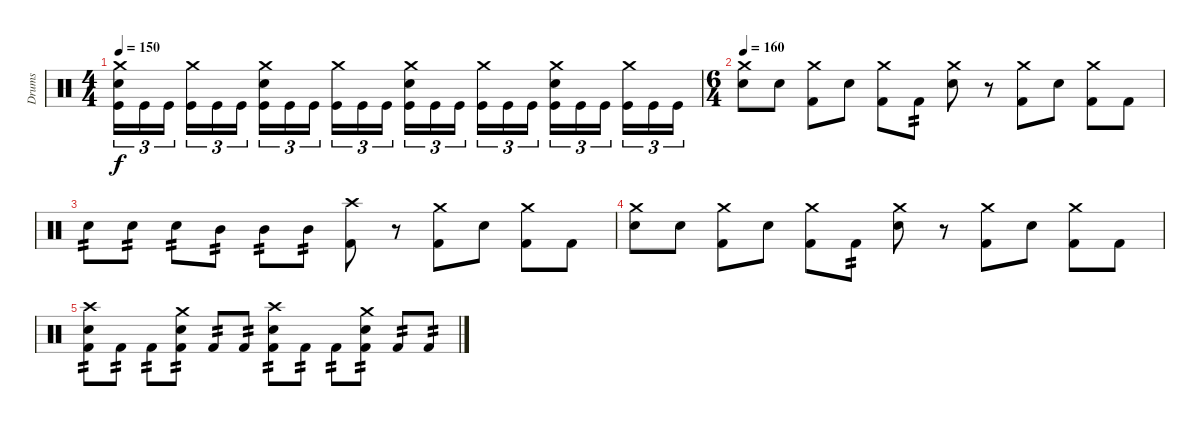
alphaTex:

\track ("Drums" "Drums") {instrument percussion}
\staff {score}
\articulation defaults
\ts (4 4)
\tempo 150
\clef neutral
\ks c
("Crash medium (hit)" "Electric Snare (hit)" "Kick (hit)").16{tu (3 2) dy f} "Kick (hit)".16{tu (3 2)} "Kick (hit)".16{tu (3 2)} ("Crash medium (hit)" "Kick (hit)").16{tu (3 2)} "Kick (hit)".16{tu (3 2)} "Kick (hit)".16{tu (3 2)} ("Crash medium (hit)" "Electric Snare (hit)" "Kick (hit)").16{tu (3 2)} "Kick (hit)".16{tu (3 2)} "Kick (hit)".16{tu (3 2)} ("Crash medium (hit)" "Kick (hit)").16{tu (3 2)} "Kick (hit)".16{tu (3 2)} "Kick (hit)".16{tu (3 2)} ("Crash medium (hit)" "Electric Snare (hit)" "Kick (hit)").16{tu (3 2)} "Kick (hit)".16{tu (3 2)} "Kick (hit)".16{tu (3 2)} ("Crash medium (hit)" "Kick (hit)").16{tu (3 2)} "Kick (hit)".16{tu (3 2)} "Kick (hit)".16{tu (3 2)} ("Crash medium (hit)" "Electric Snare (hit)" "Kick (hit)").16{tu (3 2)} "Kick (hit)".16{tu (3 2)} "Kick (hit)".16{tu (3 2)} ("Crash medium (hit)" "Kick (hit)").16{tu (3 2)} "Kick (hit)".16{tu (3 2)} "Kick (hit)".16{tu (3 2)} |
\ts (6 4)
\tempo 160
("Crash medium (hit)" "Electric Snare (hit)").8 "Electric Snare (hit)".8 ("Crash medium (hit)" "Kick (hit) 2").8 "Electric Snare (hit)".8 ("Crash medium (hit)" "Kick (hit) 2").8 "Kick (hit) 2".8{tp 2} ("Crash medium (hit)" "Electric Snare (hit)").8 r.8 ("Crash medium (hit)" "Kick (hit) 2").8 "Electric Snare (hit)".8 ("Crash medium (hit)" "Kick (hit) 2").8 "Kick (hit) 2".8 |
"Electric Snare (hit)".8{tp 2} "Electric Snare (hit)".8{tp 2} "Electric Snare (hit)".8{tp 2} "Mid Tom (hit)".8{tp 2} "Mid Tom (hit)".8{tp 2} "Mid Tom (hit)".8{tp 2} ("Crash high (hit)" "Kick (hit) 2").8 r.8 ("Crash medium (hit)" "Kick (hit) 2").8 "Electric Snare (hit)".8 ("Crash medium (hit)" "Kick (hit) 2").8 "Kick (hit) 2".8 |
("Crash medium (hit)" "Electric Snare (hit)").8 "Electric Snare (hit)".8 ("Crash medium (hit)" "Kick (hit) 2").8 "Electric Snare (hit)".8 ("Crash medium (hit)" "Kick (hit) 2").8 "Kick (hit) 2".8{tp 2} ("Crash medium (hit)" "Electric Snare (hit)").8 r.8 ("Crash medium (hit)" "Kick (hit) 2").8 "Electric Snare (hit)".8 ("Crash medium (hit)" "Kick (hit) 2").8 "Kick (hit) 2".8 |
("Crash high (hit)" "Electric Snare (hit)" "Kick (hit) 2").8{tp 2} "Kick (hit) 2".8{tp 2} "Kick (hit) 2".8{tp 2} ("Crash medium (hit)" "Electric Snare (hit)" "Kick (hit) 2").8{tp 2} "Kick (hit) 2".8{tp 2} "Kick (hit) 2".8{tp 2} ("Crash high (hit)" "Electric Snare (hit)" "Kick (hit) 2").8{tp 2} "Kick (hit) 2".8{tp 2} "Kick (hit) 2".8{tp 2} ("Crash medium (hit)" "Electric Snare (hit)" "Kick (hit) 2").8{tp 2} "Kick (hit) 2".8{tp 2} "Kick (hit) 2".8{tp 2}
